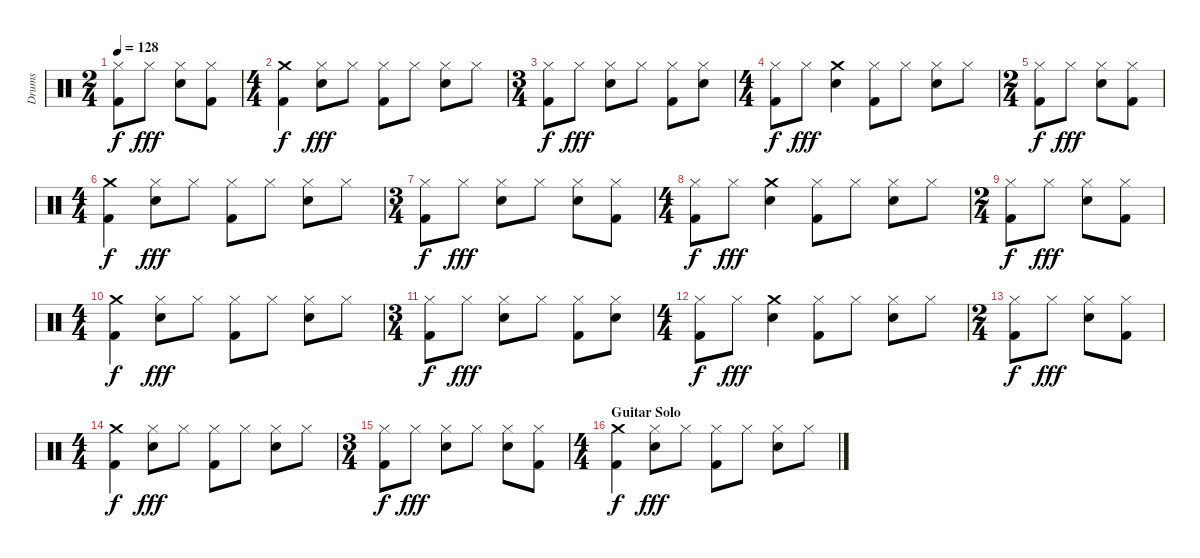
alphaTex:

\track ("Drums" "Drums") {instrument percussion}
\staff {score}
\articulation defaults
\ts (2 4)
\tempo 128
\clef neutral
\ks c
("Kick (hit) 2" "Hi-Hat (closed)").8{dy f} "Hi-Hat (closed)".8{dy fff} ("Snare (hit) 2" "Hi-Hat (closed)").8 ("Kick (hit) 2" "Hi-Hat (closed)").8 |
\ts (4 4)
("Kick (hit) 2" "Crash medium (hit)").4{dy f} ("Hi-Hat (closed)" "Snare (hit) 2").8{dy fff} "Hi-Hat (closed)".8 ("Hi-Hat (closed)" "Kick (hit) 2").8 "Hi-Hat (closed)".8 ("Snare (hit) 2" "Hi-Hat (closed)").8 "Hi-Hat (closed)".8 |
\ts (3 4)
("Kick (hit) 2" "Hi-Hat (closed)").8{dy f} "Hi-Hat (closed)".8{dy fff} ("Snare (hit) 2" "Hi-Hat (closed)").8 "Hi-Hat (closed)".8 ("Kick (hit) 2" "Hi-Hat (closed)").8 ("Snare (hit) 2" "Hi-Hat (closed)").8 |
\ts (4 4)
("Hi-Hat (closed)" "Kick (hit) 2").8{dy f} "Hi-Hat (closed)".8{dy fff} ("Snare (hit) 2" "Crash medium (hit)").4 ("Hi-Hat (closed)" "Kick (hit) 2").8 "Hi-Hat (closed)".8 ("Snare (hit) 2" "Hi-Hat (closed)").8 "Hi-Hat (closed)".8 |
\ts (2 4)
("Kick (hit) 2" "Hi-Hat (closed)").8{dy f} "Hi-Hat (closed)".8{dy fff} ("Snare (hit) 2" "Hi-Hat (closed)").8 ("Kick (hit) 2" "Hi-Hat (closed)").8 |
\ts (4 4)
("Crash medium (hit)" "Kick (hit) 2").4{dy f} ("Snare (hit) 2" "Hi-Hat (closed)").8{dy fff} "Hi-Hat (closed)".8 ("Hi-Hat (closed)" "Kick (hit) 2").8 "Hi-Hat (closed)".8 ("Snare (hit) 2" "Hi-Hat (closed)").8 "Hi-Hat (closed)".8 |
\ts (3 4)
("Kick (hit) 2" "Hi-Hat (closed)").8{dy f} "Hi-Hat (closed)".8{dy fff} ("Snare (hit) 2" "Hi-Hat (closed)").8 "Hi-Hat (closed)".8 ("Hi-Hat (closed)" "Snare (hit) 2").8 ("Kick (hit) 2" "Hi-Hat (closed)").8 |
\ts (4 4)
("Hi-Hat (closed)" "Kick (hit) 2").8{dy f} "Hi-Hat (closed)".8{dy fff} ("Snare (hit) 2" "Crash medium (hit)").4 ("Hi-Hat (closed)" "Kick (hit) 2").8 "Hi-Hat (closed)".8 ("Snare (hit) 2" "Hi-Hat (closed)").8 "Hi-Hat (closed)".8 |
\ts (2 4)
("Kick (hit) 2" "Hi-Hat (closed)").8{dy f} "Hi-Hat (closed)".8{dy fff} ("Snare (hit) 2" "Hi-Hat (closed)").8 ("Kick (hit) 2" "Hi-Hat (closed)").8 |
\ts (4 4)
("Crash medium (hit)" "Kick (hit) 2").4{dy f} ("Snare (hit) 2" "Hi-Hat (closed)").8{dy fff} "Hi-Hat (closed)".8 ("Hi-Hat (closed)" "Kick (hit) 2").8 "Hi-Hat (closed)".8 ("Snare (hit) 2" "Hi-Hat (closed)").8 "Hi-Hat (closed)".8 |
\ts (3 4)
("Kick (hit) 2" "Hi-Hat (closed)").8{dy f} "Hi-Hat (closed)".8{dy fff} ("Snare (hit) 2" "Hi-Hat (closed)").8 "Hi-Hat (closed)".8 ("Kick (hit) 2" "Hi-Hat (closed)").8 ("Snare (hit) 2" "Hi-Hat (closed)").8 |
\ts (4 4)
("Hi-Hat (closed)" "Kick (hit) 2").8{dy f} "Hi-Hat (closed)".8{dy fff} ("Snare (hit) 2" "Crash medium (hit)").4 ("Hi-Hat (closed)" "Kick (hit) 2").8 "Hi-Hat (closed)".8 ("Snare (hit) 2" "Hi-Hat (closed)").8 "Hi-Hat (closed)".8 |
\ts (2 4)
("Kick (hit) 2" "Hi-Hat (closed)").8{dy f} "Hi-Hat (closed)".8{dy fff} ("Snare (hit) 2" "Hi-Hat (closed)").8 ("Kick (hit) 2" "Hi-Hat (closed)").8 |
\ts (4 4)
("Crash medium (hit)" "Kick (hit) 2").4{dy f} ("Snare (hit) 2" "Hi-Hat (closed)").8{dy fff} "Hi-Hat (closed)".8 ("Hi-Hat (closed)" "Kick (hit) 2").8 "Hi-Hat (closed)".8 ("Snare (hit) 2" "Hi-Hat (closed)").8 "Hi-Hat (closed)".8 |
\ts (3 4)
("Kick (hit) 2" "Hi-Hat (closed)").8{dy f} "Hi-Hat (closed)".8{dy fff} ("Snare (hit) 2" "Hi-Hat (closed)").8 "Hi-Hat (closed)".8 ("Hi-Hat (closed)" "Snare (hit) 2").8 ("Kick (hit) 2" "Hi-Hat (closed)").8 |
\ts (4 4)
\section ("" "Guitar Solo")
("Kick (hit) 2" "Crash medium (hit)").4{dy f} ("Hi-Hat (closed)" "Snare (hit) 2").8{dy fff} "Hi-Hat (closed)".8 ("Hi-Hat (closed)" "Kick (hit) 2").8 "Hi-Hat (closed)".8 ("Snare (hit) 2" "Hi-Hat (closed)").8 "Hi-Hat (closed)".8
